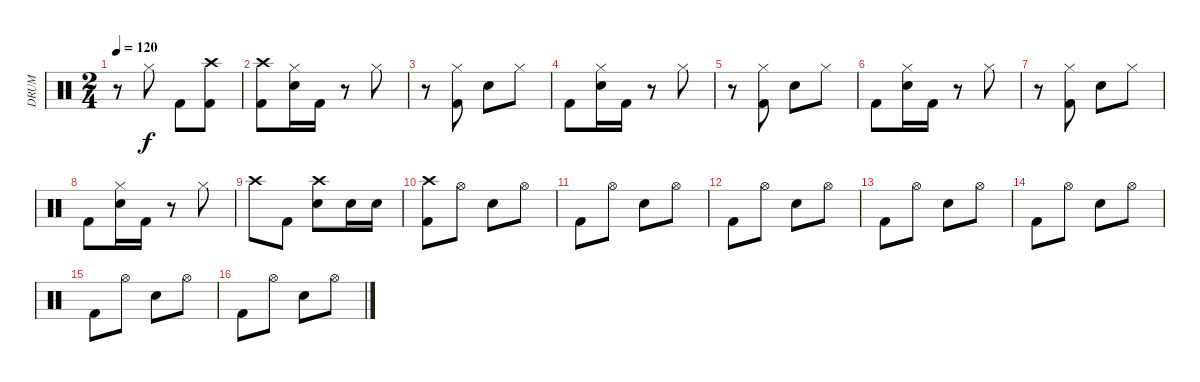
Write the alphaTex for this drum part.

\track ("DRUM" "DRUM") {instrument percussion}
\staff {score}
\articulation defaults
\ts (2 4)
\tempo 120
\clef neutral
\ks c
r.8{dy f} "Hi-Hat (closed)".8 "Kick (hit) 2".8 ("Crash high (hit)" "Kick (hit) 2").8 |
("Crash high (hit)" "Kick (hit) 2").8 ("Electric Snare (hit)" "Hi-Hat (closed)").16 "Kick (hit) 2".16 r.8 "Hi-Hat (closed)".8 |
r.8 ("Kick (hit) 2" "Hi-Hat (closed)").8 "Electric Snare (hit)".8 "Hi-Hat (closed)".8 |
"Kick (hit) 2".8 ("Electric Snare (hit)" "Hi-Hat (closed)").16 "Kick (hit) 2".16 r.8 "Hi-Hat (closed)".8 |
r.8 ("Kick (hit) 2" "Hi-Hat (closed)").8 "Electric Snare (hit)".8 "Hi-Hat (closed)".8 |
"Kick (hit) 2".8 ("Electric Snare (hit)" "Hi-Hat (closed)").16 "Kick (hit) 2".16 r.8 "Hi-Hat (closed)".8 |
r.8 ("Kick (hit) 2" "Hi-Hat (closed)").8 "Electric Snare (hit)".8 "Hi-Hat (closed)".8 |
"Kick (hit) 2".8 ("Electric Snare (hit)" "Hi-Hat (closed)").16 "Kick (hit) 2".16 r.8 "Hi-Hat (closed)".8 |
"Crash high (hit)".8 "Kick (hit) 2".8 ("Crash high (hit)" "Electric Snare (hit)").8 "Electric Snare (hit)".16 "Electric Snare (hit)".16 |
("Crash high (hit)" "Kick (hit) 2").8 "Hi-Hat (open)".8 "Electric Snare (hit)".8 "Hi-Hat (open)".8 |
"Kick (hit) 2".8 "Hi-Hat (open)".8 "Electric Snare (hit)".8 "Hi-Hat (open)".8 |
"Kick (hit) 2".8 "Hi-Hat (open)".8 "Electric Snare (hit)".8 "Hi-Hat (open)".8 |
"Kick (hit) 2".8 "Hi-Hat (open)".8 "Electric Snare (hit)".8 "Hi-Hat (open)".8 |
"Kick (hit) 2".8 "Hi-Hat (open)".8 "Electric Snare (hit)".8 "Hi-Hat (open)".8 |
"Kick (hit) 2".8 "Hi-Hat (open)".8 "Electric Snare (hit)".8 "Hi-Hat (open)".8 |
"Kick (hit) 2".8 "Hi-Hat (open)".8 "Electric Snare (hit)".8 "Hi-Hat (open)".8
